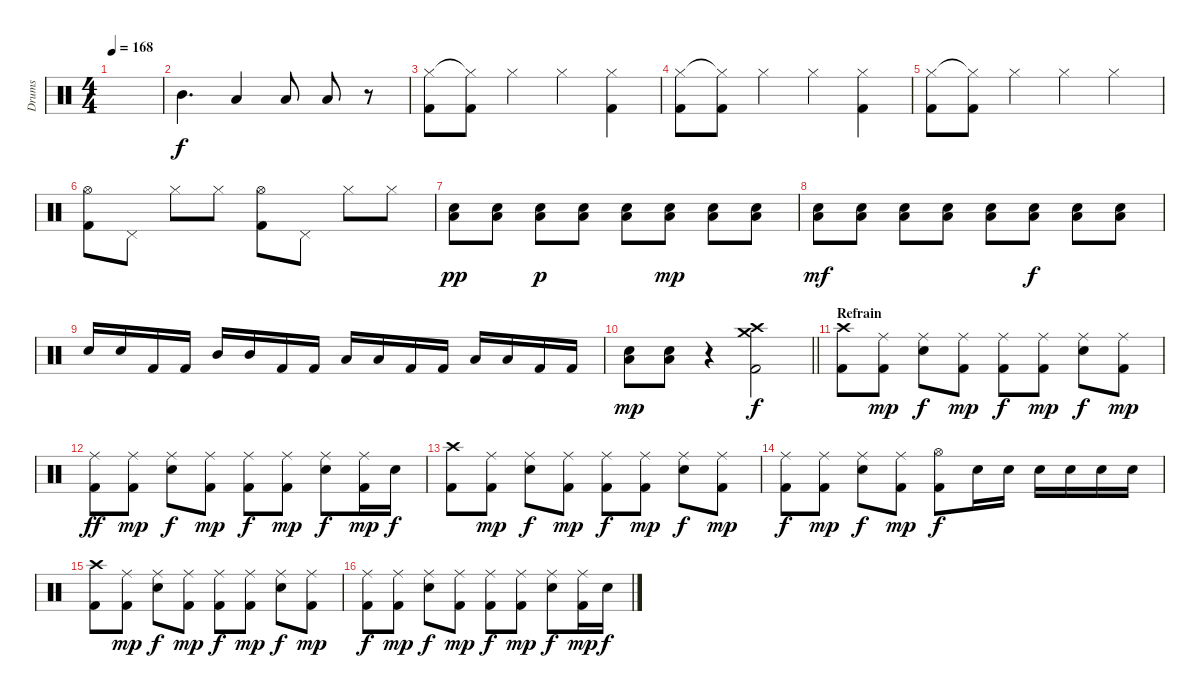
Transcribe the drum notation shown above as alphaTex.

\track ("Drums" "Drums") {instrument percussion}
\staff {score}
\articulation defaults
\ts (4 4)
\tempo 168
\clef neutral
\ks c
|
"Mid Tom (hit)".4{d} "Low Tom (hit)".4 "Low Floor Tom (hit)".8 "Low Floor Tom (hit)".8 r.8 |
("Hi-Hat (closed)" "Kick (hit) 2").8 ("Hi-Hat (closed)"{t} "Kick (hit) 2").8 "Hi-Hat (closed)".4 "Hi-Hat (closed)".4 ("Hi-Hat (closed)" "Kick (hit) 2").4 |
("Hi-Hat (closed)" "Kick (hit) 2").8 ("Hi-Hat (closed)"{t} "Kick (hit) 2").8 "Hi-Hat (closed)".4 "Hi-Hat (closed)".4 ("Hi-Hat (closed)" "Kick (hit) 2").4 |
("Hi-Hat (closed)" "Kick (hit) 2").8 ("Hi-Hat (closed)"{t} "Kick (hit) 2").8 "Hi-Hat (closed)".4 "Hi-Hat (closed)".4 "Hi-Hat (closed)".4 |
("Hi-Hat (open)" "Kick (hit) 2").8 "Pedal Hi-Hat (hit)".8 "Hi-Hat (closed)".8 "Hi-Hat (closed)".8 ("Hi-Hat (open)" "Kick (hit) 2").8 "Pedal Hi-Hat (hit)".8 "Hi-Hat (closed)".8 "Hi-Hat (closed)".8 |
("Electric Snare (hit)" "Low Floor Tom (hit)").8{dy pp} ("Electric Snare (hit)" "Low Floor Tom (hit)").8 ("Electric Snare (hit)" "Low Floor Tom (hit)").8{dy p} ("Electric Snare (hit)" "Low Floor Tom (hit)").8 ("Electric Snare (hit)" "Low Floor Tom (hit)").8 ("Electric Snare (hit)" "Low Floor Tom (hit)").8{dy mp} ("Electric Snare (hit)" "Low Floor Tom (hit)").8 ("Electric Snare (hit)" "Low Floor Tom (hit)").8 |
("Electric Snare (hit)" "Low Floor Tom (hit)").8{dy mf} ("Electric Snare (hit)" "Low Floor Tom (hit)").8 ("Electric Snare (hit)" "Low Floor Tom (hit)").8 ("Electric Snare (hit)" "Low Floor Tom (hit)").8 ("Electric Snare (hit)" "Low Floor Tom (hit)").8 ("Electric Snare (hit)" "Low Floor Tom (hit)").8{dy f} ("Electric Snare (hit)" "Low Floor Tom (hit)").8 ("Electric Snare (hit)" "Low Floor Tom (hit)").8 |
"Electric Snare (hit)".16 "Electric Snare (hit)".16 "Kick (hit) 2".16 "Kick (hit) 2".16 "Mid Tom (hit)".16 "Mid Tom (hit)".16 "Kick (hit) 2".16 "Kick (hit) 2".16 "Low Tom (hit)".16 "Low Tom (hit)".16 "Kick (hit) 2".16 "Kick (hit) 2".16 "Low Floor Tom (hit)".16 "Low Floor Tom (hit)".16 "Kick (hit) 2".16 "Kick (hit) 2".16 |
\barLineRight lightlight
("Electric Snare (hit)" "Low Floor Tom (hit)").8{dy mp} ("Electric Snare (hit)" "Low Floor Tom (hit)").8 r.4 ("Crash high (hit)" "Crash medium (hit)" "Kick (hit) 2").2{dy f} |
\section ("" "Refrain")
("Crash high (hit)" "Kick (hit) 2").8 ("Ride (middle)" "Kick (hit) 2").8{dy mp} ("Ride (middle)" "Electric Snare (hit)").8{dy f} ("Ride (middle)" "Kick (hit) 2").8{dy mp} ("Ride (middle)" "Kick (hit) 2").8{dy f} ("Ride (middle)" "Kick (hit) 2").8{dy mp} ("Ride (middle)" "Electric Snare (hit)").8{dy f} ("Ride (middle)" "Kick (hit) 2").8{dy mp} |
("Ride (middle)" "Kick (hit) 2").8{dy ff} ("Ride (middle)" "Kick (hit) 2").8{dy mp} ("Ride (middle)" "Electric Snare (hit)").8{dy f} ("Ride (middle)" "Kick (hit) 2").8{dy mp} ("Ride (middle)" "Kick (hit) 2").8{dy f} ("Ride (middle)" "Kick (hit) 2").8{dy mp} ("Ride (middle)" "Electric Snare (hit)").8{dy f} ("Ride (middle)" "Kick (hit) 2").16{dy mp} "Electric Snare (hit)".16{dy f} |
("Crash high (hit)" "Kick (hit) 2").8 ("Ride (middle)" "Kick (hit) 2").8{dy mp} ("Ride (middle)" "Electric Snare (hit)").8{dy f} ("Ride (middle)" "Kick (hit) 2").8{dy mp} ("Ride (middle)" "Kick (hit) 2").8{dy f} ("Ride (middle)" "Kick (hit) 2").8{dy mp} ("Ride (middle)" "Electric Snare (hit)").8{dy f} ("Ride (middle)" "Kick (hit) 2").8{dy mp} |
("Ride (middle)" "Kick (hit) 2").8{dy f} ("Ride (middle)" "Kick (hit) 2").8{dy mp} ("Ride (middle)" "Electric Snare (hit)").8{dy f} ("Ride (middle)" "Kick (hit) 2").8{dy mp} ("Hi-Hat (open)" "Kick (hit) 2").8{dy f} "Electric Snare (hit)".16 "Electric Snare (hit)".16 "Electric Snare (hit)".16 "Electric Snare (hit)".16 "Electric Snare (hit)".16 "Electric Snare (hit)".16 |
("Crash high (hit)" "Kick (hit) 2").8 ("Ride (middle)" "Kick (hit) 2").8{dy mp} ("Ride (middle)" "Electric Snare (hit)").8{dy f} ("Ride (middle)" "Kick (hit) 2").8{dy mp} ("Ride (middle)" "Kick (hit) 2").8{dy f} ("Ride (middle)" "Kick (hit) 2").8{dy mp} ("Ride (middle)" "Electric Snare (hit)").8{dy f} ("Ride (middle)" "Kick (hit) 2").8{dy mp} |
("Ride (middle)" "Kick (hit) 2").8{dy f} ("Ride (middle)" "Kick (hit) 2").8{dy mp} ("Ride (middle)" "Electric Snare (hit)").8{dy f} ("Ride (middle)" "Kick (hit) 2").8{dy mp} ("Ride (middle)" "Kick (hit) 2").8{dy f} ("Ride (middle)" "Kick (hit) 2").8{dy mp} ("Ride (middle)" "Electric Snare (hit)").8{dy f} ("Ride (middle)" "Kick (hit) 2").16{dy mp} "Electric Snare (hit)".16{dy f}
